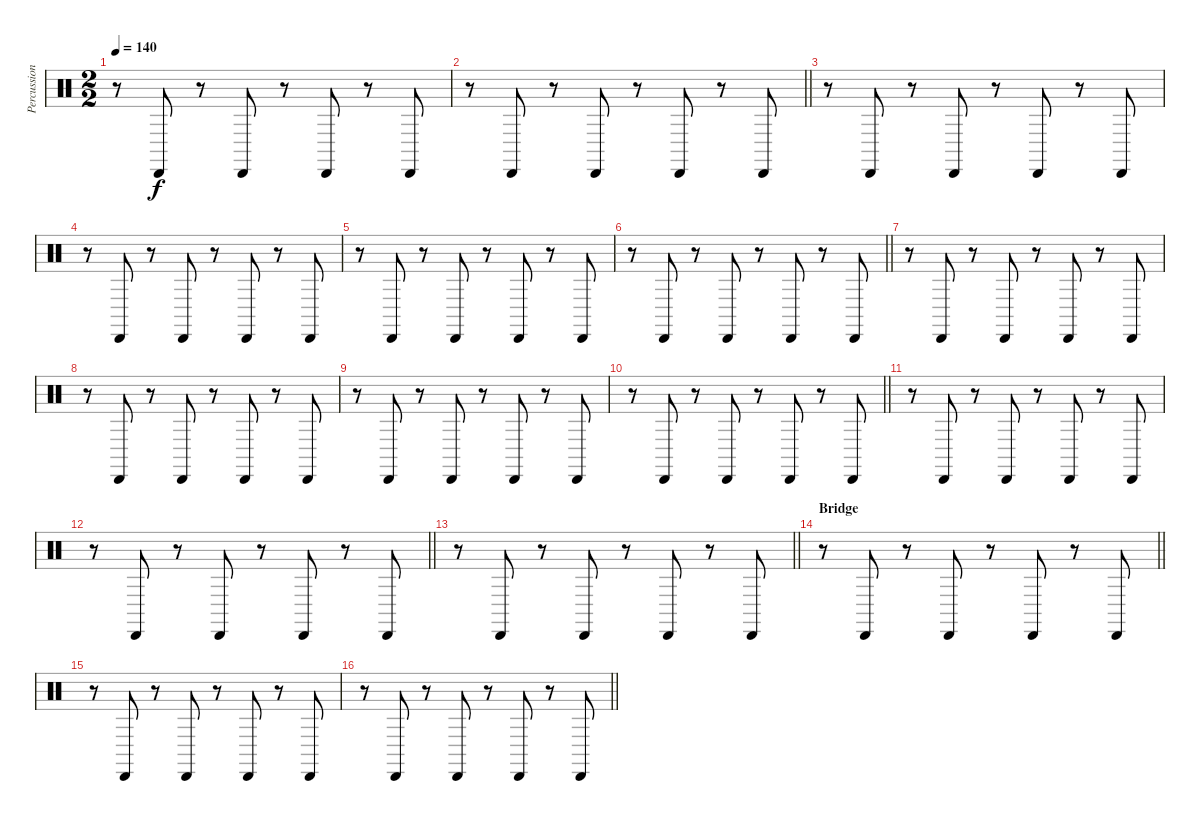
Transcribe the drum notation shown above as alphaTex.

\track ("Percussion 2" "Percussion") {instrument percussion}
\staff {score}
\articulation defaults
\ts (2 2)
\tempo 140
\clef neutral
\ks c
r.8{dy f} "Cabasa (hit)".8 r.8 "Cabasa (hit)".8 r.8 "Cabasa (hit)".8 r.8 "Cabasa (hit)".8 |
\barLineRight lightlight
r.8 "Cabasa (hit)".8 r.8 "Cabasa (hit)".8 r.8 "Cabasa (hit)".8 r.8 "Cabasa (hit)".8 |
r.8 "Cabasa (hit)".8 r.8 "Cabasa (hit)".8 r.8 "Cabasa (hit)".8 r.8 "Cabasa (hit)".8 |
r.8 "Cabasa (hit)".8 r.8 "Cabasa (hit)".8 r.8 "Cabasa (hit)".8 r.8 "Cabasa (hit)".8 |
r.8 "Cabasa (hit)".8 r.8 "Cabasa (hit)".8 r.8 "Cabasa (hit)".8 r.8 "Cabasa (hit)".8 |
\barLineRight lightlight
r.8 "Cabasa (hit)".8 r.8 "Cabasa (hit)".8 r.8 "Cabasa (hit)".8 r.8 "Cabasa (hit)".8 |
r.8 "Cabasa (hit)".8 r.8 "Cabasa (hit)".8 r.8 "Cabasa (hit)".8 r.8 "Cabasa (hit)".8 |
r.8 "Cabasa (hit)".8 r.8 "Cabasa (hit)".8 r.8 "Cabasa (hit)".8 r.8 "Cabasa (hit)".8 |
r.8 "Cabasa (hit)".8 r.8 "Cabasa (hit)".8 r.8 "Cabasa (hit)".8 r.8 "Cabasa (hit)".8 |
\barLineRight lightlight
r.8 "Cabasa (hit)".8 r.8 "Cabasa (hit)".8 r.8 "Cabasa (hit)".8 r.8 "Cabasa (hit)".8 |
r.8 "Cabasa (hit)".8 r.8 "Cabasa (hit)".8 r.8 "Cabasa (hit)".8 r.8 "Cabasa (hit)".8 |
\barLineRight lightlight
r.8 "Cabasa (hit)".8 r.8 "Cabasa (hit)".8 r.8 "Cabasa (hit)".8 r.8 "Cabasa (hit)".8 |
\barLineRight lightlight
r.8 "Cabasa (hit)".8 r.8 "Cabasa (hit)".8 r.8 "Cabasa (hit)".8 r.8 "Cabasa (hit)".8 |
\section ("" "Bridge")
\barLineRight lightlight
r.8 "Cabasa (hit)".8 r.8 "Cabasa (hit)".8 r.8 "Cabasa (hit)".8 r.8 "Cabasa (hit)".8 |
r.8 "Cabasa (hit)".8 r.8 "Cabasa (hit)".8 r.8 "Cabasa (hit)".8 r.8 "Cabasa (hit)".8 |
\barLineRight lightlight
r.8 "Cabasa (hit)".8 r.8 "Cabasa (hit)".8 r.8 "Cabasa (hit)".8 r.8 "Cabasa (hit)".8
